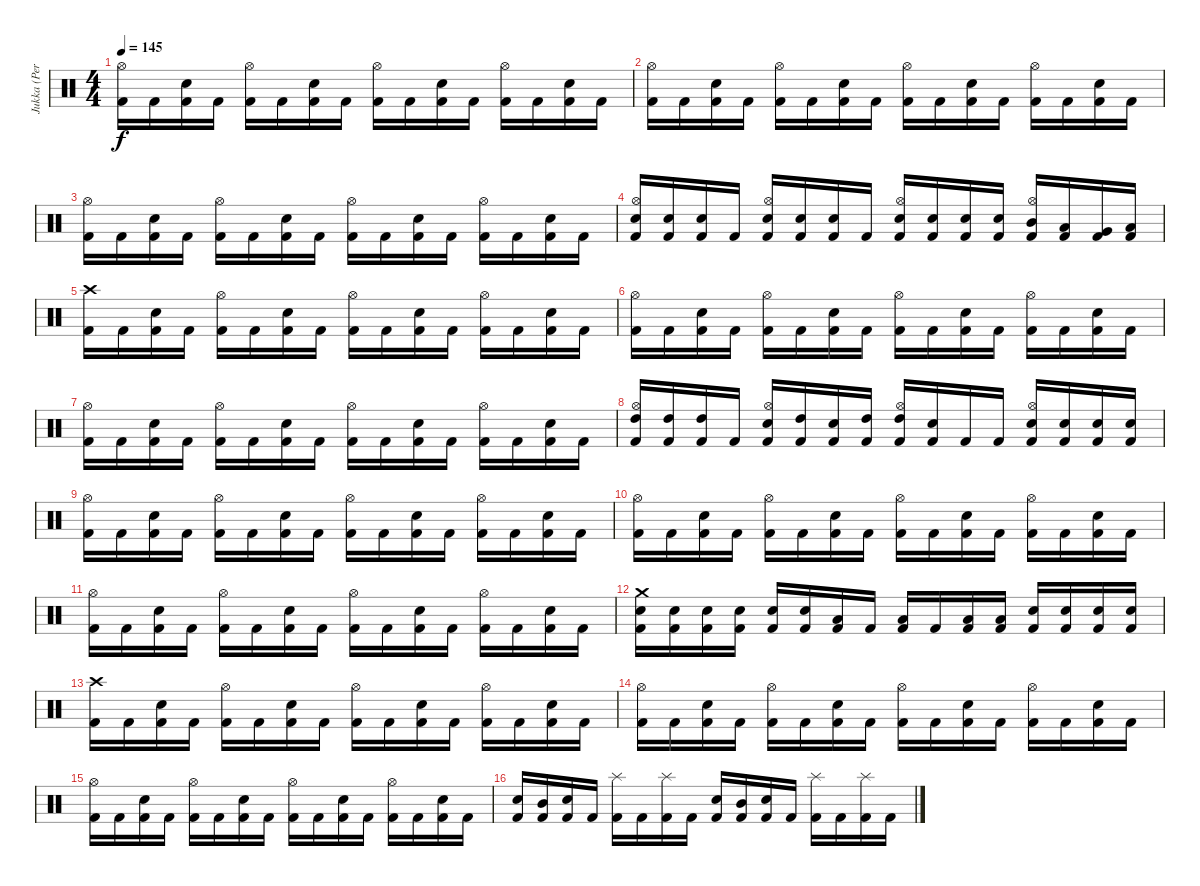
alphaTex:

\track ("Jukka (Percussion)" "Jukka (Per") {instrument percussion}
\staff {score}
\articulation defaults
\ts (4 4)
\tempo 145
\clef neutral
\ks c
("Kick (hit) 2" "Hi-Hat (open)").16{dy f} "Kick (hit) 2".16 ("Kick (hit) 2" "Electric Snare (hit)").16 "Kick (hit) 2".16 ("Kick (hit) 2" "Hi-Hat (open)").16 "Kick (hit) 2".16 ("Kick (hit) 2" "Electric Snare (hit)").16 "Kick (hit) 2".16 ("Kick (hit) 2" "Hi-Hat (open)").16 "Kick (hit) 2".16 ("Kick (hit) 2" "Electric Snare (hit)").16 "Kick (hit) 2".16 ("Kick (hit) 2" "Hi-Hat (open)").16 "Kick (hit) 2".16 ("Kick (hit) 2" "Electric Snare (hit)").16 "Kick (hit) 2".16 |
("Kick (hit) 2" "Hi-Hat (open)").16 "Kick (hit) 2".16 ("Kick (hit) 2" "Electric Snare (hit)").16 "Kick (hit) 2".16 ("Kick (hit) 2" "Hi-Hat (open)").16 "Kick (hit) 2".16 ("Kick (hit) 2" "Electric Snare (hit)").16 "Kick (hit) 2".16 ("Kick (hit) 2" "Hi-Hat (open)").16 "Kick (hit) 2".16 ("Kick (hit) 2" "Electric Snare (hit)").16 "Kick (hit) 2".16 ("Kick (hit) 2" "Hi-Hat (open)").16 "Kick (hit) 2".16 ("Kick (hit) 2" "Electric Snare (hit)").16 "Kick (hit) 2".16 |
("Kick (hit) 2" "Hi-Hat (open)").16 "Kick (hit) 2".16 ("Kick (hit) 2" "Electric Snare (hit)").16 "Kick (hit) 2".16 ("Kick (hit) 2" "Hi-Hat (open)").16 "Kick (hit) 2".16 ("Kick (hit) 2" "Electric Snare (hit)").16 "Kick (hit) 2".16 ("Kick (hit) 2" "Hi-Hat (open)").16 "Kick (hit) 2".16 ("Kick (hit) 2" "Electric Snare (hit)").16 "Kick (hit) 2".16 ("Kick (hit) 2" "Hi-Hat (open)").16 "Kick (hit) 2".16 ("Kick (hit) 2" "Electric Snare (hit)").16 "Kick (hit) 2".16 |
("Kick (hit) 2" "Electric Snare (hit)" "Hi-Hat (open)").16 ("Kick (hit) 2" "Electric Snare (hit)").16 ("Kick (hit) 2" "Electric Snare (hit)").16 "Kick (hit) 2".16 ("Kick (hit) 2" "Electric Snare (hit)" "Hi-Hat (open)").16 ("Kick (hit) 2" "Electric Snare (hit)").16 ("Kick (hit) 2" "Electric Snare (hit)").16 "Kick (hit) 2".16 ("Kick (hit) 2" "Electric Snare (hit)" "Hi-Hat (open)").16 ("Kick (hit) 2" "Electric Snare (hit)").16 ("Kick (hit) 2" "Electric Snare (hit)").16 ("Kick (hit) 2" "Electric Snare (hit)").16 ("Kick (hit) 2" "Hi-Hat (open)" "Mid Tom (hit)").16 ("Kick (hit) 2" "Low Tom (hit)").16 ("Kick (hit) 2" "Very Low Tom (hit)").16 ("Kick (hit) 2" "Low Floor Tom (hit)").16 |
("Kick (hit) 2" "Crash high (hit)").16 "Kick (hit) 2".16 ("Kick (hit) 2" "Electric Snare (hit)").16 "Kick (hit) 2".16 ("Kick (hit) 2" "Hi-Hat (open)").16 "Kick (hit) 2".16 ("Kick (hit) 2" "Electric Snare (hit)").16 "Kick (hit) 2".16 ("Kick (hit) 2" "Hi-Hat (open)").16 "Kick (hit) 2".16 ("Kick (hit) 2" "Electric Snare (hit)").16 "Kick (hit) 2".16 ("Kick (hit) 2" "Hi-Hat (open)").16 "Kick (hit) 2".16 ("Kick (hit) 2" "Electric Snare (hit)").16 "Kick (hit) 2".16 |
("Kick (hit) 2" "Hi-Hat (open)").16 "Kick (hit) 2".16 ("Kick (hit) 2" "Electric Snare (hit)").16 "Kick (hit) 2".16 ("Kick (hit) 2" "Hi-Hat (open)").16 "Kick (hit) 2".16 ("Kick (hit) 2" "Electric Snare (hit)").16 "Kick (hit) 2".16 ("Kick (hit) 2" "Hi-Hat (open)").16 "Kick (hit) 2".16 ("Kick (hit) 2" "Electric Snare (hit)").16 "Kick (hit) 2".16 ("Kick (hit) 2" "Hi-Hat (open)").16 "Kick (hit) 2".16 ("Kick (hit) 2" "Electric Snare (hit)").16 "Kick (hit) 2".16 |
("Kick (hit) 2" "Hi-Hat (open)").16 "Kick (hit) 2".16 ("Kick (hit) 2" "Electric Snare (hit)").16 "Kick (hit) 2".16 ("Kick (hit) 2" "Hi-Hat (open)").16 "Kick (hit) 2".16 ("Kick (hit) 2" "Electric Snare (hit)").16 "Kick (hit) 2".16 ("Kick (hit) 2" "Hi-Hat (open)").16 "Kick (hit) 2".16 ("Kick (hit) 2" "Electric Snare (hit)").16 "Kick (hit) 2".16 ("Kick (hit) 2" "Hi-Hat (open)").16 "Kick (hit) 2".16 ("Kick (hit) 2" "Electric Snare (hit)").16 "Kick (hit) 2".16 |
("Kick (hit) 2" "Hi-Hat (open)" "High Tom (hit)").16 ("Kick (hit) 2" "High Tom (hit)").16 ("Kick (hit) 2" "High Tom (hit)").16 "Kick (hit) 2".16 ("Kick (hit) 2" "Electric Snare (hit)" "Hi-Hat (open)").16 ("Kick (hit) 2" "High Tom (hit)").16 ("Kick (hit) 2" "Electric Snare (hit)").16 ("Kick (hit) 2" "High Tom (hit)").16 ("Kick (hit) 2" "Hi-Hat (open)" "High Tom (hit)").16 ("Kick (hit) 2" "Electric Snare (hit)").16 "Kick (hit) 2".16 "Kick (hit) 2".16 ("Kick (hit) 2" "Electric Snare (hit)" "Hi-Hat (open)").16 ("Kick (hit) 2" "Electric Snare (hit)").16 ("Kick (hit) 2" "Electric Snare (hit)").16 ("Kick (hit) 2" "Electric Snare (hit)").16 |
("Kick (hit) 2" "Hi-Hat (open)").16 "Kick (hit) 2".16 ("Kick (hit) 2" "Electric Snare (hit)").16 "Kick (hit) 2".16 ("Kick (hit) 2" "Hi-Hat (open)").16 "Kick (hit) 2".16 ("Kick (hit) 2" "Electric Snare (hit)").16 "Kick (hit) 2".16 ("Kick (hit) 2" "Hi-Hat (open)").16 "Kick (hit) 2".16 ("Kick (hit) 2" "Electric Snare (hit)").16 "Kick (hit) 2".16 ("Kick (hit) 2" "Hi-Hat (open)").16 "Kick (hit) 2".16 ("Kick (hit) 2" "Electric Snare (hit)").16 "Kick (hit) 2".16 |
("Kick (hit) 2" "Hi-Hat (open)").16 "Kick (hit) 2".16 ("Kick (hit) 2" "Electric Snare (hit)").16 "Kick (hit) 2".16 ("Kick (hit) 2" "Hi-Hat (open)").16 "Kick (hit) 2".16 ("Kick (hit) 2" "Electric Snare (hit)").16 "Kick (hit) 2".16 ("Kick (hit) 2" "Hi-Hat (open)").16 "Kick (hit) 2".16 ("Kick (hit) 2" "Electric Snare (hit)").16 "Kick (hit) 2".16 ("Kick (hit) 2" "Hi-Hat (open)").16 "Kick (hit) 2".16 ("Kick (hit) 2" "Electric Snare (hit)").16 "Kick (hit) 2".16 |
("Kick (hit) 2" "Hi-Hat (open)").16 "Kick (hit) 2".16 ("Kick (hit) 2" "Electric Snare (hit)").16 "Kick (hit) 2".16 ("Kick (hit) 2" "Hi-Hat (open)").16 "Kick (hit) 2".16 ("Kick (hit) 2" "Electric Snare (hit)").16 "Kick (hit) 2".16 ("Kick (hit) 2" "Hi-Hat (open)").16 "Kick (hit) 2".16 ("Kick (hit) 2" "Electric Snare (hit)").16 "Kick (hit) 2".16 ("Kick (hit) 2" "Hi-Hat (open)").16 "Kick (hit) 2".16 ("Kick (hit) 2" "Electric Snare (hit)").16 "Kick (hit) 2".16 |
("Kick (hit) 2" "Electric Snare (hit)" "Crash medium (hit)").16 ("Kick (hit) 2" "Electric Snare (hit)").16 ("Kick (hit) 2" "Electric Snare (hit)").16 ("Kick (hit) 2" "Electric Snare (hit)").16 ("Kick (hit) 2" "Electric Snare (hit)").16 ("Kick (hit) 2" "Electric Snare (hit)").16 ("Kick (hit) 2" "Low Tom (hit)").16 "Kick (hit) 2".16 ("Kick (hit) 2" "Low Tom (hit)").16 "Kick (hit) 2".16 ("Kick (hit) 2" "Low Tom (hit)").16 ("Kick (hit) 2" "Low Tom (hit)").16 ("Kick (hit) 2" "Electric Snare (hit)").16 ("Kick (hit) 2" "Electric Snare (hit)").16 ("Kick (hit) 2" "Electric Snare (hit)").16 ("Kick (hit) 2" "Electric Snare (hit)").16 |
("Kick (hit) 2" "Crash high (hit)").16 "Kick (hit) 2".16 ("Kick (hit) 2" "Electric Snare (hit)").16 "Kick (hit) 2".16 ("Kick (hit) 2" "Hi-Hat (open)").16 "Kick (hit) 2".16 ("Kick (hit) 2" "Electric Snare (hit)").16 "Kick (hit) 2".16 ("Kick (hit) 2" "Hi-Hat (open)").16 "Kick (hit) 2".16 ("Kick (hit) 2" "Electric Snare (hit)").16 "Kick (hit) 2".16 ("Kick (hit) 2" "Hi-Hat (open)").16 "Kick (hit) 2".16 ("Kick (hit) 2" "Electric Snare (hit)").16 "Kick (hit) 2".16 |
("Kick (hit) 2" "Hi-Hat (open)").16 "Kick (hit) 2".16 ("Kick (hit) 2" "Electric Snare (hit)").16 "Kick (hit) 2".16 ("Kick (hit) 2" "Hi-Hat (open)").16 "Kick (hit) 2".16 ("Kick (hit) 2" "Electric Snare (hit)").16 "Kick (hit) 2".16 ("Kick (hit) 2" "Hi-Hat (open)").16 "Kick (hit) 2".16 ("Kick (hit) 2" "Electric Snare (hit)").16 "Kick (hit) 2".16 ("Kick (hit) 2" "Hi-Hat (open)").16 "Kick (hit) 2".16 ("Kick (hit) 2" "Electric Snare (hit)").16 "Kick (hit) 2".16 |
("Kick (hit) 2" "Hi-Hat (open)").16 "Kick (hit) 2".16 ("Kick (hit) 2" "Electric Snare (hit)").16 "Kick (hit) 2".16 ("Kick (hit) 2" "Hi-Hat (open)").16 "Kick (hit) 2".16 ("Kick (hit) 2" "Electric Snare (hit)").16 "Kick (hit) 2".16 ("Kick (hit) 2" "Hi-Hat (open)").16 "Kick (hit) 2".16 ("Kick (hit) 2" "Electric Snare (hit)").16 "Kick (hit) 2".16 ("Kick (hit) 2" "Hi-Hat (open)").16 "Kick (hit) 2".16 ("Kick (hit) 2" "Electric Snare (hit)").16 "Kick (hit) 2".16 |
("Kick (hit) 2" "Electric Snare (hit)").16 ("Kick (hit) 2" "Mid Tom (hit)").16 ("Kick (hit) 2" "Electric Snare (hit)").16 "Kick (hit) 2".16 ("Kick (hit) 2" "Splash (hit)").16 "Kick (hit) 2".16 ("Kick (hit) 2" "Splash (hit)").16 "Kick (hit) 2".16 ("Kick (hit) 2" "Electric Snare (hit)").16 ("Kick (hit) 2" "Mid Tom (hit)").16 ("Kick (hit) 2" "Electric Snare (hit)").16 "Kick (hit) 2".16 ("Kick (hit) 2" "Splash (hit)").16 "Kick (hit) 2".16 ("Kick (hit) 2" "Splash (hit)").16 "Kick (hit) 2".16
